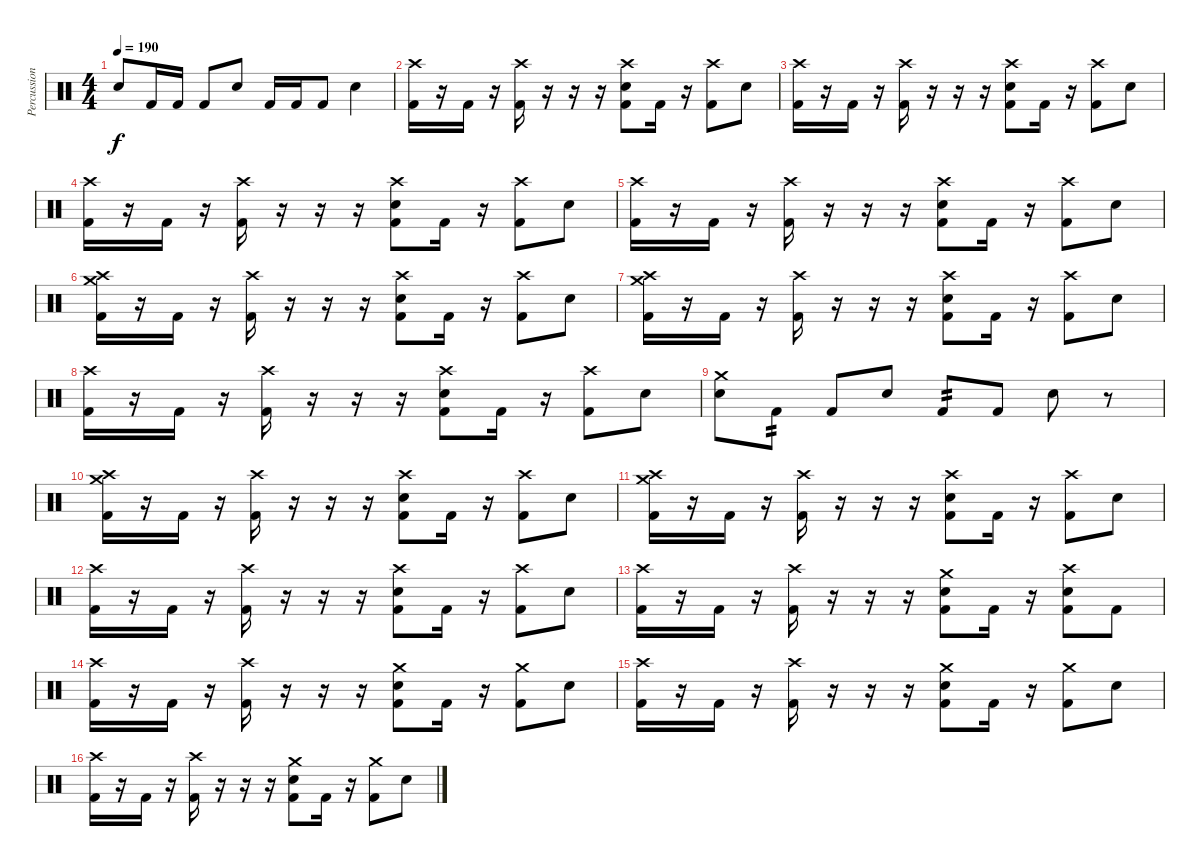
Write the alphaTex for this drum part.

\track ("Percussion" "Percussion") {instrument percussion}
\staff {score}
\articulation defaults
\ts (4 4)
\tempo 190
\clef neutral
\ks c "Electric Snare (hit)".8{dy f} "Kick (hit) 2".16 "Kick (hit) 2".16 "Kick (hit) 2".8 "Electric Snare (hit)".8 "Kick (hit) 2".16 "Kick (hit) 2".16 "Kick (hit) 2".8 "Electric Snare (hit)".4
|
("Crash high (hit)" "Kick (hit) 2").16 r.16 "Kick (hit) 2".16 r.16 ("Crash high (hit)" "Kick (hit) 2").16 r.16 r.16 r.16 ("Crash high (hit)" "Electric Snare (hit)" "Kick (hit) 2").8 "Kick (hit) 2".16 r.16 ("Crash high (hit)" "Kick (hit) 2").8 "Electric Snare (hit)".8 |
("Crash high (hit)" "Kick (hit) 2").16 r.16 "Kick (hit) 2".16 r.16 ("Crash high (hit)" "Kick (hit) 2").16 r.16 r.16 r.16 ("Crash high (hit)" "Electric Snare (hit)" "Kick (hit) 2").8 "Kick (hit) 2".16 r.16 ("Crash high (hit)" "Kick (hit) 2").8 "Electric Snare (hit)".8 |
("Crash high (hit)" "Kick (hit) 2").16 r.16 "Kick (hit) 2".16 r.16 ("Crash high (hit)" "Kick (hit) 2").16 r.16 r.16 r.16 ("Crash high (hit)" "Electric Snare (hit)" "Kick (hit) 2").8 "Kick (hit) 2".16 r.16 ("Crash high (hit)" "Kick (hit) 2").8 "Electric Snare (hit)".8 |
("Crash high (hit)" "Kick (hit) 2").16 r.16 "Kick (hit) 2".16 r.16 ("Crash high (hit)" "Kick (hit) 2").16 r.16 r.16 r.16 ("Crash high (hit)" "Electric Snare (hit)" "Kick (hit) 2").8 "Kick (hit) 2".16 r.16 ("Crash high (hit)" "Kick (hit) 2").8 "Electric Snare (hit)".8 |
("Crash medium (hit)" "Crash high (hit)" "Kick (hit) 2").16 r.16 "Kick (hit) 2".16 r.16 ("Crash high (hit)" "Kick (hit) 2").16 r.16 r.16 r.16 ("Crash high (hit)" "Electric Snare (hit)" "Kick (hit) 2").8 "Kick (hit) 2".16 r.16 ("Crash high (hit)" "Kick (hit) 2").8 "Electric Snare (hit)".8 |
("Crash medium (hit)" "Crash high (hit)" "Kick (hit) 2").16 r.16 "Kick (hit) 2".16 r.16 ("Crash high (hit)" "Kick (hit) 2").16 r.16 r.16 r.16 ("Crash high (hit)" "Electric Snare (hit)" "Kick (hit) 2").8 "Kick (hit) 2".16 r.16 ("Crash high (hit)" "Kick (hit) 2").8 "Electric Snare (hit)".8 |
("Crash high (hit)" "Kick (hit) 2").16 r.16 "Kick (hit) 2".16 r.16 ("Crash high (hit)" "Kick (hit) 2").16 r.16 r.16 r.16 ("Crash high (hit)" "Electric Snare (hit)" "Kick (hit) 2").8 "Kick (hit) 2".16 r.16 ("Crash high (hit)" "Kick (hit) 2").8 "Electric Snare (hit)".8 |
("Crash medium (hit)" "Electric Snare (hit)").8 "Kick (hit) 2".8{tp 2} "Kick (hit) 2".8 "Electric Snare (hit)".8 "Kick (hit) 2".8{tp 2} "Kick (hit) 2".8 "Electric Snare (hit)".8 r.8 |
("Crash medium (hit)" "Crash high (hit)" "Kick (hit) 2").16 r.16 "Kick (hit) 2".16 r.16 ("Crash high (hit)" "Kick (hit) 2").16 r.16 r.16 r.16 ("Crash high (hit)" "Electric Snare (hit)" "Kick (hit) 2").8 "Kick (hit) 2".16 r.16 ("Crash high (hit)" "Kick (hit) 2").8 "Electric Snare (hit)".8 |
("Crash medium (hit)" "Crash high (hit)" "Kick (hit) 2").16 r.16 "Kick (hit) 2".16 r.16 ("Crash high (hit)" "Kick (hit) 2").16 r.16 r.16 r.16 ("Crash high (hit)" "Electric Snare (hit)" "Kick (hit) 2").8 "Kick (hit) 2".16 r.16 ("Crash high (hit)" "Kick (hit) 2").8 "Electric Snare (hit)".8 |
("Crash high (hit)" "Kick (hit) 2").16 r.16 "Kick (hit) 2".16 r.16 ("Crash high (hit)" "Kick (hit) 2").16 r.16 r.16 r.16 ("Crash high (hit)" "Electric Snare (hit)" "Kick (hit) 2").8 "Kick (hit) 2".16 r.16 ("Crash high (hit)" "Kick (hit) 2").8 "Electric Snare (hit)".8 |
("Crash high (hit)" "Kick (hit) 2").16 r.16 "Kick (hit) 2".16 r.16 ("Crash high (hit)" "Kick (hit) 2").16 r.16 r.16 r.16 ("Crash medium (hit)" "Electric Snare (hit)" "Kick (hit) 2").8 "Kick (hit) 2".16 r.16 ("Crash high (hit)" "Electric Snare (hit)" "Kick (hit) 2").8 "Kick (hit) 2".8 |
("Crash high (hit)" "Kick (hit) 2").16 r.16 "Kick (hit) 2".16 r.16 ("Crash high (hit)" "Kick (hit) 2").16 r.16 r.16 r.16 ("Crash medium (hit)" "Electric Snare (hit)" "Kick (hit) 2").8 "Kick (hit) 2".16 r.16 ("Crash medium (hit)" "Kick (hit) 2").8 "Electric Snare (hit)".8 |
("Crash high (hit)" "Kick (hit) 2").16 r.16 "Kick (hit) 2".16 r.16 ("Crash high (hit)" "Kick (hit) 2").16 r.16 r.16 r.16 ("Crash medium (hit)" "Electric Snare (hit)" "Kick (hit) 2").8 "Kick (hit) 2".16 r.16 ("Crash medium (hit)" "Kick (hit) 2").8 "Electric Snare (hit)".8 |
("Crash high (hit)" "Kick (hit) 2").16 r.16 "Kick (hit) 2".16 r.16 ("Crash high (hit)" "Kick (hit) 2").16 r.16 r.16 r.16 ("Crash medium (hit)" "Electric Snare (hit)" "Kick (hit) 2").8 "Kick (hit) 2".16 r.16 ("Crash medium (hit)" "Kick (hit) 2").8 "Electric Snare (hit)".8
